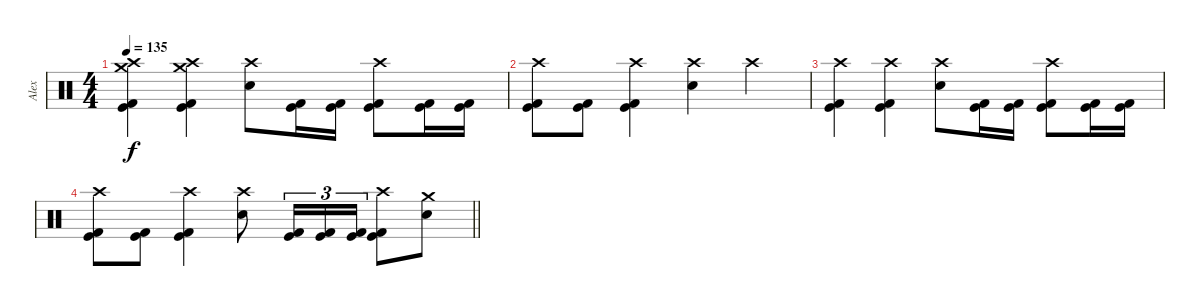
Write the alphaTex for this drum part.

\track ("Alex" "Alex") {instrument percussion}
\staff {score}
\articulation defaults
\ts (4 4)
\tempo 135
\clef neutral
\ks c
("Crash medium (hit)" "Crash high (hit)" "Kick (hit) 2" "Kick (hit)").4{dy f} ("Crash medium (hit)" "Crash high (hit)" "Kick (hit) 2" "Kick (hit)").4 ("Crash high (hit)" "Electric Snare (hit)").8 ("Kick (hit) 2" "Kick (hit)").16 ("Kick (hit) 2" "Kick (hit)").16 ("Crash high (hit)" "Kick (hit) 2" "Kick (hit)").8 ("Kick (hit) 2" "Kick (hit)").16 ("Kick (hit) 2" "Kick (hit)").16 |
("Crash high (hit)" "Kick (hit) 2" "Kick (hit)").8 ("Kick (hit) 2" "Kick (hit)").8 ("Crash high (hit)" "Kick (hit) 2" "Kick (hit)").4 ("Crash high (hit)" "Electric Snare (hit)").4 "Crash high (hit)".4 |
("Crash high (hit)" "Kick (hit) 2" "Kick (hit)").4 ("Crash high (hit)" "Kick (hit) 2" "Kick (hit)").4 ("Crash high (hit)" "Electric Snare (hit)").8 ("Kick (hit) 2" "Kick (hit)").16 ("Kick (hit) 2" "Kick (hit)").16 ("Crash high (hit)" "Kick (hit) 2" "Kick (hit)").8 ("Kick (hit) 2" "Kick (hit)").16 ("Kick (hit) 2" "Kick (hit)").16 |
\barLineRight lightlight
("Crash high (hit)" "Kick (hit) 2" "Kick (hit)").8 ("Kick (hit) 2" "Kick (hit)").8 ("Crash high (hit)" "Kick (hit) 2" "Kick (hit)").4 ("Crash high (hit)" "Electric Snare (hit)").8 ("Kick (hit) 2" "Kick (hit)").16{tu (3 2)} ("Kick (hit) 2" "Kick (hit)").16{tu (3 2)} ("Kick (hit) 2" "Kick (hit)").16{tu (3 2)} ("Crash high (hit)" "Kick (hit) 2" "Kick (hit)").8 ("Crash medium (hit)" "Electric Snare (hit)").8
